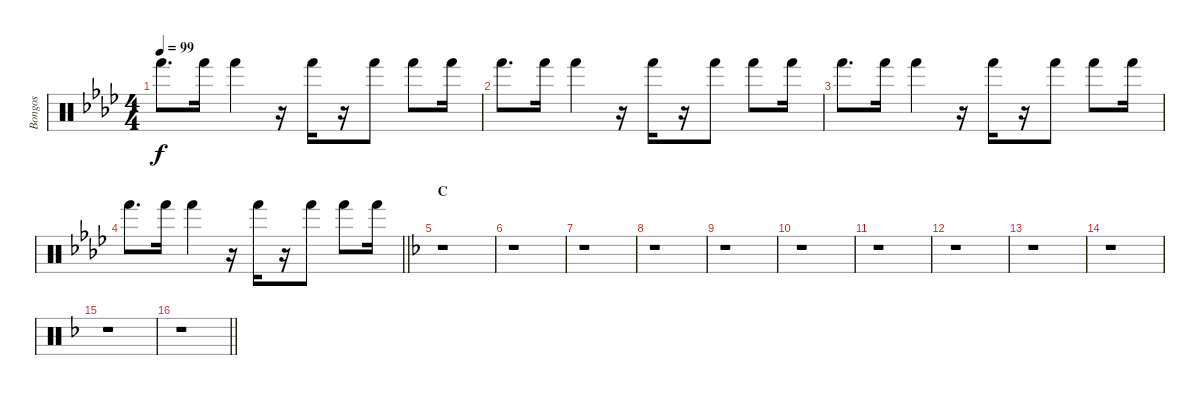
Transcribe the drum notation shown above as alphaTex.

\track ("Bongos" "Bongos") {instrument percussion}
\staff {score}
\articulation defaults
\ts (4 4)
\tempo 99
\clef neutral
\ks ab "Hand (hit)".8{d dy f} "Hand (hit)".16 "Hand (hit)".4
r.16 "Hand (hit)".16 r.16 "Hand (hit)".8 "Hand (hit)".8 "Hand (hit)".16 |
"Hand (hit)".8{d} "Hand (hit)".16 "Hand (hit)".4 r.16 "Hand (hit)".16 r.16 "Hand (hit)".8 "Hand (hit)".8 "Hand (hit)".16 |
"Hand (hit)".8{d} "Hand (hit)".16 "Hand (hit)".4 r.16 "Hand (hit)".16 r.16 "Hand (hit)".8 "Hand (hit)".8 "Hand (hit)".16 |
\barLineRight lightlight "Hand (hit)".8{d} "Hand (hit)".16 "Hand (hit)".4
r.16 "Hand (hit)".16 r.16 "Hand (hit)".8 "Hand (hit)".8 "Hand (hit)".16 |
\section ("" "C")
\ks f
r.1 |
r.1 |
r.1 |
r.1 |
r.1 |
r.1 |
r.1 |
r.1 |
r.1 |
r.1 |
r.1 |
\barLineRight lightlight
r.1
